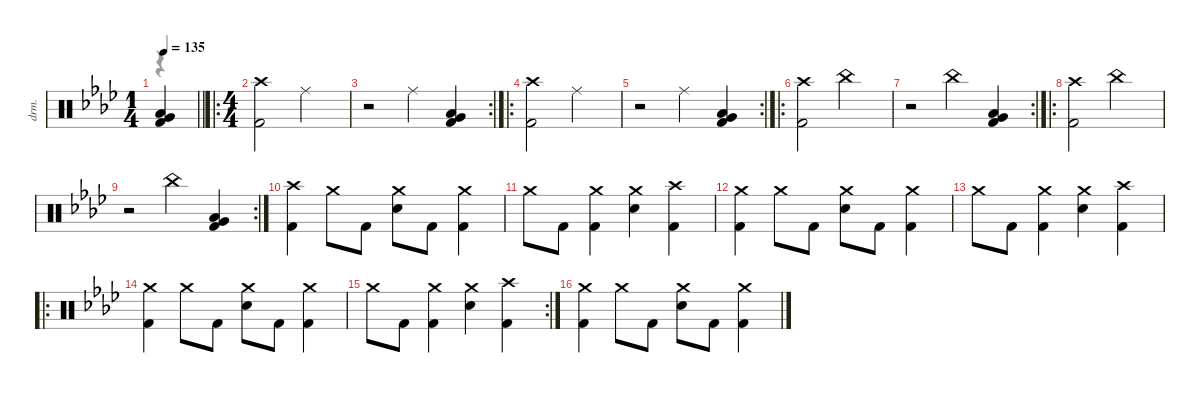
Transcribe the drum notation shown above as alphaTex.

\defaultSystemsLayout 4
\hideDynamics
\bracketExtendMode nobrackets
\otherSystemsTrackNameOrientation horizontal
\track ("Drums" "drm.") {defaultSystemsLayout 4 instrument percussion}
\staff {score}
\articulation defaults
\voice
\ts (1 4)
\beaming (8 2)
\tempo 135
\clef neutral
\barLineRight lightlight
\ks ab
("Very Low Tom (hit)"{acc forcenatural} "Low Floor Tom (hit)"{acc forcenatural} "Kick (hit) 2"{acc forcenatural}).4{dy f beam Up} |
\ro
\ts (4 4)
\beaming (8 2 2 2 2)
("Crash high (hit)"{acc forcenatural} "Kick (hit) 2"{acc forcenatural}).2{beam Down} "Ride (middle)"{acc forcenatural}.2{beam Down} |
\rc 2
r.2{beam Down} "Ride (middle)"{acc forcenatural}.4{beam Down} ("Very Low Tom (hit)"{acc forcenatural} "Low Floor Tom (hit)"{acc forcenatural} "Kick (hit) 2"{acc forcenatural}).4{beam Up} |
\ro
("Crash high (hit)"{acc forcenatural} "Kick (hit) 2"{acc forcenatural}).2{beam Down} "Ride (middle)"{acc forcenatural}.2{beam Down} |
\rc 2
r.2{beam Down} "Ride (middle)"{acc forcenatural}.4{beam Down} ("Very Low Tom (hit)"{acc forcenatural} "Low Floor Tom (hit)"{acc forcenatural} "Kick (hit) 2"{acc forcenatural}).4{beam Up} |
\ro
("Crash high (hit)"{acc forcenatural} "Kick (hit) 2"{acc forcenatural}).2{beam Down} "China (hit)"{acc forcenatural}.2{beam Down} |
\rc 2
r.2{beam Down} "China (hit)"{acc forcenatural}.4{beam Down} ("Very Low Tom (hit)"{acc forcenatural} "Low Floor Tom (hit)"{acc forcenatural} "Kick (hit) 2"{acc forcenatural}).4{beam Up} |
\ro
("Crash high (hit)"{acc forcenatural} "Kick (hit) 2"{acc forcenatural}).2{beam Down} "China (hit)"{acc forcenatural}.2{beam Down} |
\rc 2
r.2{beam Down} "China (hit)"{acc forcenatural}.4{beam Down} ("Very Low Tom (hit)"{acc forcenatural} "Low Floor Tom (hit)"{acc forcenatural} "Kick (hit) 2"{acc forcenatural}).4{beam Up} |
("Crash high (hit)"{acc forcenatural} "Kick (hit) 2"{acc forcenatural}).4{beam Down} "Crash medium (hit)"{acc forcenatural}.8{beam Down} "Kick (hit) 2"{acc forcenatural}.8{beam Down} ("Crash medium (hit)"{acc forcenatural} "Snare (hit) 2"{acc forcenatural}).8{beam Down} "Kick (hit) 2"{acc forcenatural}.8{beam Down} ("Crash medium (hit)"{acc forcenatural} "Kick (hit) 2"{acc forcenatural}).4{beam Down} |
"Crash medium (hit)"{acc forcenatural}.8{beam Down} "Kick (hit) 2"{acc forcenatural}.8{beam Down} ("Crash medium (hit)"{acc forcenatural} "Kick (hit) 2"{acc forcenatural}).4{beam Down} ("Crash medium (hit)"{acc forcenatural} "Snare (hit) 2"{acc forcenatural}).4{beam Down} ("Crash high (hit)"{acc forcenatural} "Kick (hit) 2"{acc forcenatural}).4{beam Down} |
("Crash medium (hit)"{acc forcenatural} "Kick (hit) 2"{acc forcenatural}).4{beam Down} "Crash medium (hit)"{acc forcenatural}.8{beam Down} "Kick (hit) 2"{acc forcenatural}.8{beam Down} ("Crash medium (hit)"{acc forcenatural} "Snare (hit) 2"{acc forcenatural}).8{beam Down} "Kick (hit) 2"{acc forcenatural}.8{beam Down} ("Crash medium (hit)"{acc forcenatural} "Kick (hit) 2"{acc forcenatural}).4{beam Down} |
"Crash medium (hit)"{acc forcenatural}.8{beam Down} "Kick (hit) 2"{acc forcenatural}.8{beam Down} ("Crash medium (hit)"{acc forcenatural} "Kick (hit) 2"{acc forcenatural}).4{beam Down} ("Crash medium (hit)"{acc forcenatural} "Snare (hit) 2"{acc forcenatural}).4{beam Down} ("Crash high (hit)"{acc forcenatural} "Kick (hit) 2"{acc forcenatural}).4{beam Down} |
\ro
("Crash medium (hit)"{acc forcenatural} "Kick (hit) 2"{acc forcenatural}).4{beam Down} "Crash medium (hit)"{acc forcenatural}.8{beam Down} "Kick (hit) 2"{acc forcenatural}.8{beam Down} ("Crash medium (hit)"{acc forcenatural} "Snare (hit) 2"{acc forcenatural}).8{beam Down} "Kick (hit) 2"{acc forcenatural}.8{beam Down} ("Crash medium (hit)"{acc forcenatural} "Kick (hit) 2"{acc forcenatural}).4{beam Down} |
\rc 2 "Crash medium (hit)"{acc forcenatural}.8{beam Down} "Kick (hit) 2"{acc forcenatural}.8{beam Down}
("Crash medium (hit)"{acc forcenatural} "Kick (hit) 2"{acc forcenatural}).4{beam Down} ("Crash medium (hit)"{acc forcenatural} "Snare (hit) 2"{acc forcenatural}).4{beam Down} ("Crash high (hit)"{acc forcenatural} "Kick (hit) 2"{acc forcenatural}).4{beam Down} |
("Crash medium (hit)"{acc forcenatural} "Kick (hit) 2"{acc forcenatural}).4{beam Down} "Crash medium (hit)"{acc forcenatural}.8{beam Down} "Kick (hit) 2"{acc forcenatural}.8{beam Down} ("Crash medium (hit)"{acc forcenatural} "Snare (hit) 2"{acc forcenatural}).8{beam Down} "Kick (hit) 2"{acc forcenatural}.8{beam Down} ("Crash medium (hit)"{acc forcenatural} "Kick (hit) 2"{acc forcenatural}).4{beam Down}
\voice
\clef neutral
\ottava regular
\simile none
\barLineRight lightlight
\ks ab
r.4{dy mf beam Down} |
|
|
|
|
|
|
|
|
|
|
|
|
|
|
